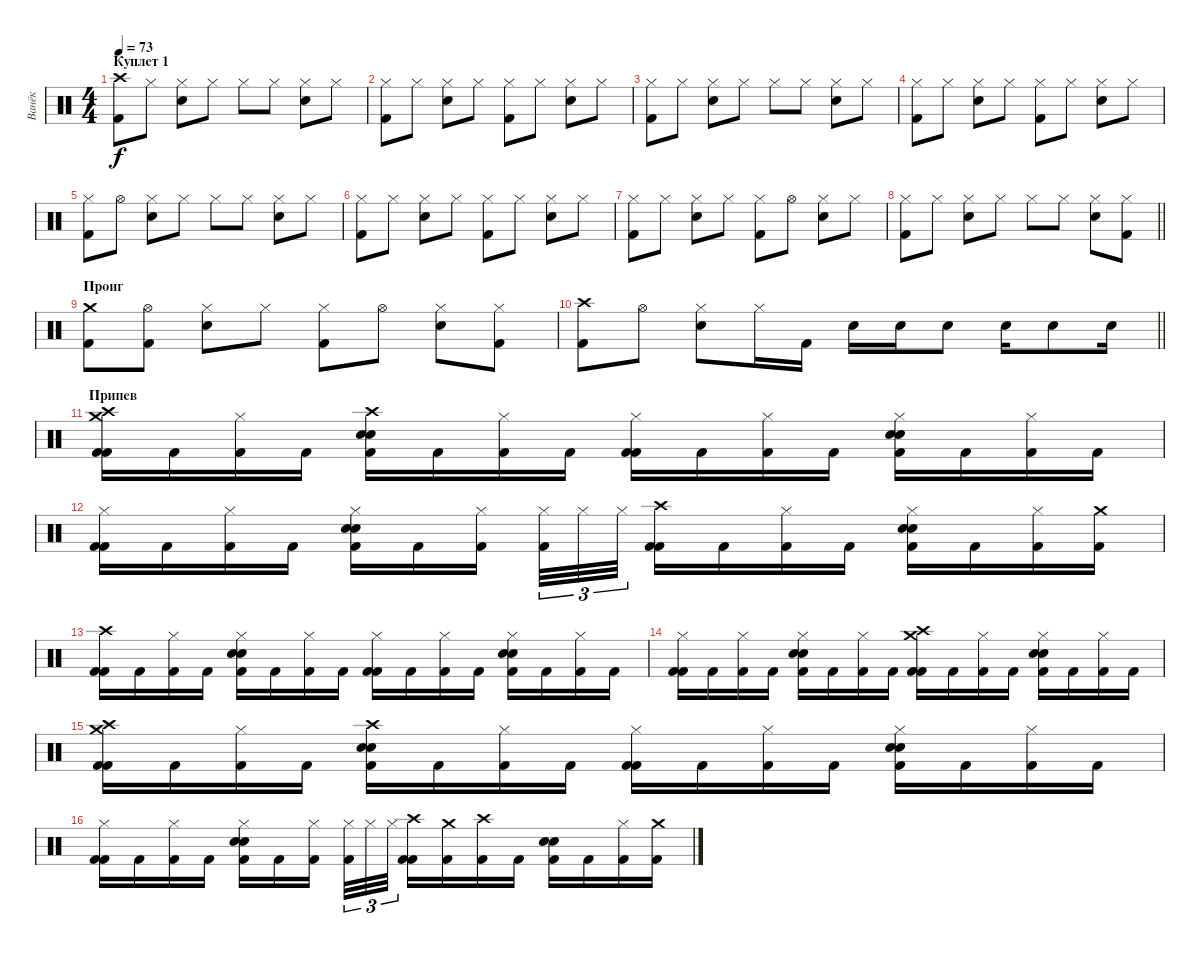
\track ("Ванёк" "Ванёк") {instrument percussion}
\staff {score}
\articulation defaults
\ts (4 4)
\section ("" "Куплет 1")
\tempo 73
\clef neutral
\ks c
("Crash high (hit)" "Kick (hit) 2").8{dy f} "Hi-Hat (closed)".8 ("Hi-Hat (closed)" "Snare (hit) 2").8 "Hi-Hat (closed)".8 "Hi-Hat (closed)".8 "Hi-Hat (closed)".8 ("Hi-Hat (closed)" "Snare (hit) 2").8 "Hi-Hat (closed)".8 |
("Hi-Hat (closed)" "Kick (hit) 2").8 "Hi-Hat (closed)".8 ("Hi-Hat (closed)" "Snare (hit) 2").8 "Hi-Hat (closed)".8 ("Hi-Hat (closed)" "Kick (hit) 2").8 "Hi-Hat (closed)".8 ("Hi-Hat (closed)" "Snare (hit) 2").8 "Hi-Hat (closed)".8 |
("Hi-Hat (closed)" "Kick (hit) 2").8 "Hi-Hat (closed)".8 ("Hi-Hat (closed)" "Snare (hit) 2").8 "Hi-Hat (closed)".8 "Hi-Hat (closed)".8 "Hi-Hat (closed)".8 ("Hi-Hat (closed)" "Snare (hit) 2").8 "Hi-Hat (closed)".8 |
("Hi-Hat (closed)" "Kick (hit) 2").8 "Hi-Hat (closed)".8 ("Hi-Hat (closed)" "Snare (hit) 2").8 "Hi-Hat (closed)".8 ("Hi-Hat (closed)" "Kick (hit) 2").8 "Hi-Hat (closed)".8 ("Hi-Hat (closed)" "Snare (hit) 2").8 "Hi-Hat (closed)".8 |
("Hi-Hat (closed)" "Kick (hit) 2").8 "Hi-Hat (open)".8 ("Hi-Hat (closed)" "Snare (hit) 2").8 "Hi-Hat (closed)".8 "Hi-Hat (closed)".8 "Hi-Hat (closed)".8 ("Hi-Hat (closed)" "Snare (hit) 2").8 "Hi-Hat (closed)".8 |
("Hi-Hat (closed)" "Kick (hit) 2").8 "Hi-Hat (closed)".8 ("Hi-Hat (closed)" "Snare (hit) 2").8 "Hi-Hat (closed)".8 ("Hi-Hat (closed)" "Kick (hit) 2").8 "Hi-Hat (closed)".8 ("Hi-Hat (closed)" "Snare (hit) 2").8 "Hi-Hat (closed)".8 |
("Hi-Hat (closed)" "Kick (hit) 2").8 "Hi-Hat (closed)".8 ("Hi-Hat (closed)" "Snare (hit) 2").8 "Hi-Hat (closed)".8 ("Hi-Hat (closed)" "Kick (hit) 2").8 "Hi-Hat (open)".8 ("Hi-Hat (closed)" "Snare (hit) 2").8 "Hi-Hat (closed)".8 |
\barLineRight lightlight
("Hi-Hat (closed)" "Kick (hit) 2").8 "Hi-Hat (closed)".8 ("Hi-Hat (closed)" "Snare (hit) 2").8 "Hi-Hat (closed)".8 "Hi-Hat (closed)".8 "Hi-Hat (closed)".8 ("Hi-Hat (closed)" "Snare (hit) 2").8 ("Hi-Hat (closed)" "Kick (hit) 2").8 |
\section ("" "Проиг")
("Crash medium (hit)" "Kick (hit) 2").8 ("Hi-Hat (open)" "Kick (hit) 2").8 ("Hi-Hat (closed)" "Snare (hit) 2").8 "Hi-Hat (closed)".8 ("Hi-Hat (closed)" "Kick (hit) 2").8 "Hi-Hat (open)".8 ("Hi-Hat (closed)" "Snare (hit) 2").8 ("Hi-Hat (closed)" "Kick (hit) 2").8 |
\barLineRight lightlight
("Crash high (hit)" "Kick (hit) 2").8 "Hi-Hat (open)".8 ("Hi-Hat (closed)" "Snare (hit) 2").8 "Hi-Hat (closed)".16 "Kick (hit) 2".16 "Snare (hit) 2".16 "Snare (hit) 2".16 "Snare (hit) 2".8 "Snare (hit) 2".16 "Snare (hit) 2".8 "Snare (hit) 2".16 |
\section ("" "Припев")
("Crash high (hit)" "Crash medium (hit)" "Kick (hit) 2" "Kick (hit) 2").16 "Kick (hit) 2".16 ("Hi-Hat (closed)" "Kick (hit) 2").16 "Kick (hit) 2".16 ("Crash high (hit)" "Snare (hit) 2" "Snare (hit) 2" "Kick (hit) 2").16 "Kick (hit) 2".16 ("Hi-Hat (closed)" "Kick (hit) 2").16 "Kick (hit) 2".16 ("Hi-Hat (closed)" "Kick (hit) 2" "Kick (hit) 2").16 "Kick (hit) 2".16 ("Hi-Hat (closed)" "Kick (hit) 2").16 "Kick (hit) 2".16 ("Hi-Hat (closed)" "Snare (hit) 2" "Snare (hit) 2" "Kick (hit) 2").16 "Kick (hit) 2".16 ("Hi-Hat (closed)" "Kick (hit) 2").16 "Kick (hit) 2".16 |
("Hi-Hat (closed)" "Kick (hit) 2" "Kick (hit) 2").16 "Kick (hit) 2".16 ("Hi-Hat (closed)" "Kick (hit) 2").16 "Kick (hit) 2".16 ("Hi-Hat (closed)" "Snare (hit) 2" "Snare (hit) 2" "Kick (hit) 2").16 "Kick (hit) 2".16 ("Hi-Hat (closed)" "Kick (hit) 2").16{beam splitsecondary} ("Hi-Hat (closed)" "Kick (hit) 2").32{tu (3 2)} "Hi-Hat (closed)".32{tu (3 2)} "Hi-Hat (closed)".32{tu (3 2)} ("Crash high (hit)" "Kick (hit) 2" "Kick (hit) 2").16 "Kick (hit) 2".16 ("Hi-Hat (closed)" "Kick (hit) 2").16 "Kick (hit) 2".16 ("Hi-Hat (closed)" "Snare (hit) 2" "Snare (hit) 2" "Kick (hit) 2").16 "Kick (hit) 2".16 ("Hi-Hat (closed)" "Kick (hit) 2").16 ("Crash medium (hit)" "Kick (hit) 2").16 |
("Crash high (hit)" "Kick (hit) 2" "Kick (hit) 2").16 "Kick (hit) 2".16 ("Hi-Hat (closed)" "Kick (hit) 2").16 "Kick (hit) 2".16 ("Hi-Hat (closed)" "Snare (hit) 2" "Snare (hit) 2" "Kick (hit) 2").16 "Kick (hit) 2".16 ("Hi-Hat (closed)" "Kick (hit) 2").16 "Kick (hit) 2".16 ("Hi-Hat (closed)" "Kick (hit) 2" "Kick (hit) 2").16 "Kick (hit) 2".16 ("Hi-Hat (closed)" "Kick (hit) 2").16 "Kick (hit) 2".16 ("Hi-Hat (closed)" "Snare (hit) 2" "Snare (hit) 2" "Kick (hit) 2").16 "Kick (hit) 2".16 ("Hi-Hat (closed)" "Kick (hit) 2").16 "Kick (hit) 2".16 |
("Hi-Hat (closed)" "Kick (hit) 2" "Kick (hit) 2").16 "Kick (hit) 2".16 ("Hi-Hat (closed)" "Kick (hit) 2").16 "Kick (hit) 2".16 ("Hi-Hat (closed)" "Snare (hit) 2" "Snare (hit) 2" "Kick (hit) 2").16 "Kick (hit) 2".16 ("Hi-Hat (closed)" "Kick (hit) 2").16 "Kick (hit) 2".16 ("Crash high (hit)" "Crash medium (hit)" "Kick (hit) 2" "Kick (hit) 2").16 "Kick (hit) 2".16 ("Hi-Hat (closed)" "Kick (hit) 2").16 "Kick (hit) 2".16 ("Hi-Hat (closed)" "Snare (hit) 2" "Snare (hit) 2" "Kick (hit) 2").16 "Kick (hit) 2".16 ("Hi-Hat (closed)" "Kick (hit) 2").16 "Kick (hit) 2".16 |
("Crash high (hit)" "Crash medium (hit)" "Kick (hit) 2" "Kick (hit) 2").16 "Kick (hit) 2".16 ("Hi-Hat (closed)" "Kick (hit) 2").16 "Kick (hit) 2".16 ("Crash high (hit)" "Snare (hit) 2" "Snare (hit) 2" "Kick (hit) 2").16 "Kick (hit) 2".16 ("Hi-Hat (closed)" "Kick (hit) 2").16 "Kick (hit) 2".16 ("Hi-Hat (closed)" "Kick (hit) 2" "Kick (hit) 2").16 "Kick (hit) 2".16 ("Hi-Hat (closed)" "Kick (hit) 2").16 "Kick (hit) 2".16 ("Hi-Hat (closed)" "Snare (hit) 2" "Snare (hit) 2" "Kick (hit) 2").16 "Kick (hit) 2".16 ("Hi-Hat (closed)" "Kick (hit) 2").16 "Kick (hit) 2".16 |
("Hi-Hat (closed)" "Kick (hit) 2" "Kick (hit) 2").16 "Kick (hit) 2".16 ("Hi-Hat (closed)" "Kick (hit) 2").16 "Kick (hit) 2".16 ("Hi-Hat (closed)" "Snare (hit) 2" "Snare (hit) 2" "Kick (hit) 2").16 "Kick (hit) 2".16 ("Hi-Hat (closed)" "Kick (hit) 2").16{beam splitsecondary} ("Hi-Hat (closed)" "Kick (hit) 2").32{tu (3 2)} "Hi-Hat (closed)".32{tu (3 2)} "Hi-Hat (closed)".32{tu (3 2)} ("Crash high (hit)" "Kick (hit) 2" "Kick (hit) 2").16 ("Crash medium (hit)" "Kick (hit) 2").16 ("Crash high (hit)" "Kick (hit) 2").16 "Kick (hit) 2".16 ("Snare (hit) 2" "Snare (hit) 2" "Kick (hit) 2").16 "Kick (hit) 2".16 ("Hi-Hat (closed)" "Kick (hit) 2").16 ("Crash medium (hit)" "Kick (hit) 2").16
